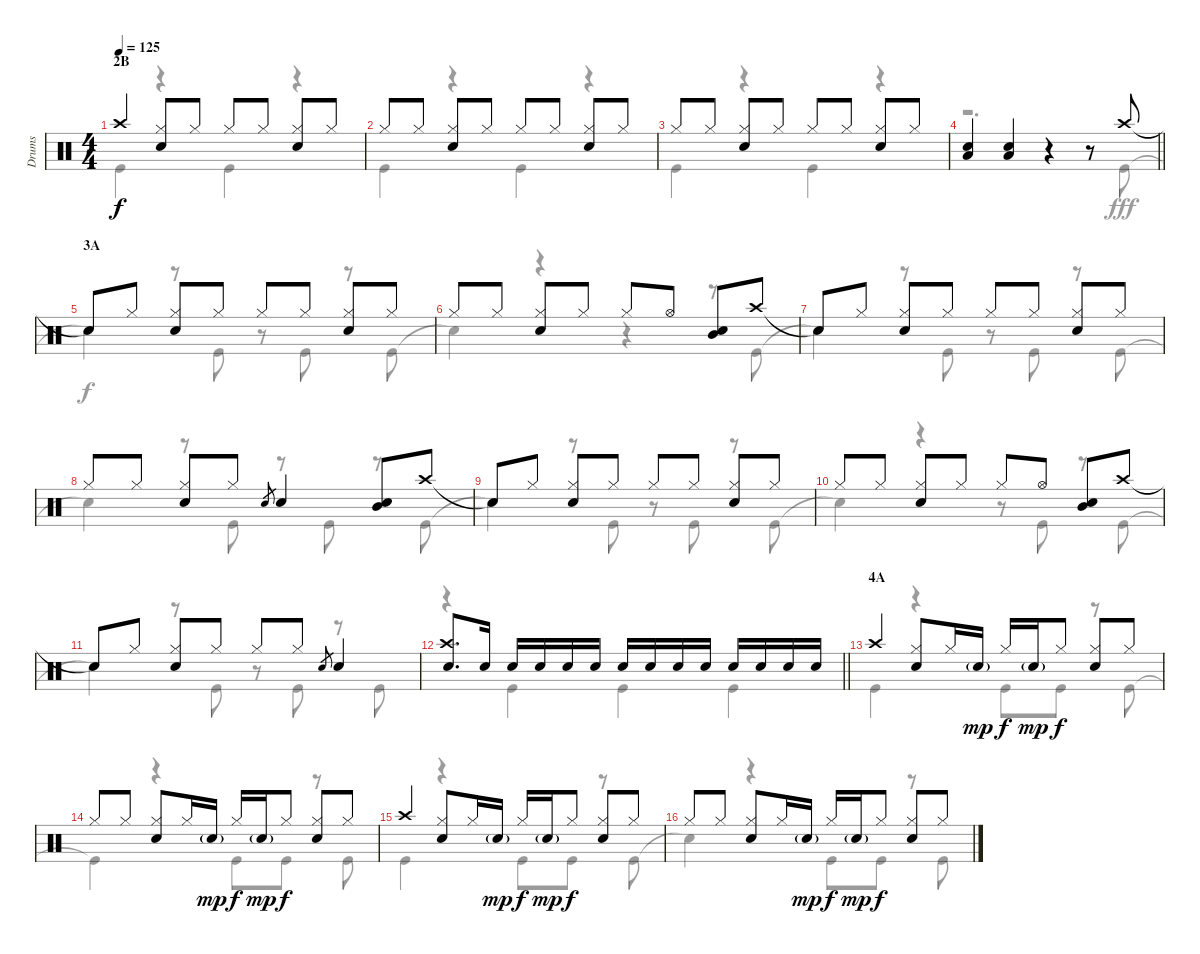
\track ("Drums" "Drums") {instrument percussion}
\staff {score}
\articulation defaults
\voice
\ts (4 4)
\section ("" "2B")
\tempo 125
\clef neutral
\ks c "Crash high (hit)".4{dy f}
("Hi-Hat (closed)" "Snare (hit) 2").8 "Hi-Hat (closed)".8 "Hi-Hat (closed)".8 "Hi-Hat (closed)".8 ("Hi-Hat (closed)" "Snare (hit) 2").8 "Hi-Hat (closed)".8 |
"Hi-Hat (closed)".8 "Hi-Hat (closed)".8 ("Hi-Hat (closed)" "Snare (hit) 2").8 "Hi-Hat (closed)".8 "Hi-Hat (closed)".8 "Hi-Hat (closed)".8 ("Hi-Hat (closed)" "Snare (hit) 2").8 "Hi-Hat (closed)".8 |
"Hi-Hat (closed)".8 "Hi-Hat (closed)".8 ("Hi-Hat (closed)" "Snare (hit) 2").8 "Hi-Hat (closed)".8 "Hi-Hat (closed)".8 "Hi-Hat (closed)".8 ("Hi-Hat (closed)" "Snare (hit) 2").8 "Hi-Hat (closed)".8 |
\barLineRight lightlight
("Low Tom (hit)" "Snare (hit) 2").4 ("Low Tom (hit)" "Snare (hit) 2").4 r.4 r.8 "Crash high (hit)".8 |
\section ("" "3A")
"Snare (hit)"{t}.8 "Hi-Hat (closed)".8 ("Hi-Hat (closed)" "Snare (hit) 2").8 "Hi-Hat (closed)".8 "Hi-Hat (closed)".8 "Hi-Hat (closed)".8 ("Hi-Hat (closed)" "Snare (hit) 2").8 "Hi-Hat (closed)".8 |
"Hi-Hat (closed)".8 "Hi-Hat (closed)".8 ("Hi-Hat (closed)" "Snare (hit) 2").8 "Hi-Hat (closed)".8 "Hi-Hat (closed)".8 "Hi-Hat (open)".8 ("Snare (hit) 2" "Mid Tom (hit)").8 "Crash high (hit)".8 |
"Snare (hit)"{t}.8 "Hi-Hat (closed)".8 ("Hi-Hat (closed)" "Snare (hit) 2").8 "Hi-Hat (closed)".8 "Hi-Hat (closed)".8 "Hi-Hat (closed)".8 ("Hi-Hat (closed)" "Snare (hit) 2").8 "Hi-Hat (closed)".8 |
"Hi-Hat (closed)".8 "Hi-Hat (closed)".8 ("Hi-Hat (closed)" "Snare (hit) 2").8 "Hi-Hat (closed)".8 "Snare (hit) 2".8{gr} "Snare (hit) 2".4 ("Snare (hit) 2" "Mid Tom (hit)").8 "Crash high (hit)".8 |
"Snare (hit)"{t}.8 "Hi-Hat (closed)".8 ("Hi-Hat (closed)" "Snare (hit) 2").8 "Hi-Hat (closed)".8 "Hi-Hat (closed)".8 "Hi-Hat (closed)".8 ("Hi-Hat (closed)" "Snare (hit) 2").8 "Hi-Hat (closed)".8 |
"Hi-Hat (closed)".8 "Hi-Hat (closed)".8 ("Hi-Hat (closed)" "Snare (hit) 2").8 "Hi-Hat (closed)".8 "Hi-Hat (closed)".8 "Hi-Hat (open)".8 ("Snare (hit) 2" "Mid Tom (hit)").8 "Crash high (hit)".8 |
"Snare (hit)"{t}.8 "Hi-Hat (closed)".8 ("Hi-Hat (closed)" "Snare (hit) 2").8 "Hi-Hat (closed)".8 "Hi-Hat (closed)".8 "Hi-Hat (closed)".8 "Snare (hit) 2".8{gr} "Snare (hit) 2".4 |
\barLineRight lightlight
("Crash high (hit)" "Snare (hit) 2").8{d} "Snare (hit) 2".16 "Snare (hit) 2".16 "Snare (hit) 2".16 "Snare (hit) 2".16 "Snare (hit) 2".16 "Snare (hit) 2".16 "Snare (hit) 2".16 "Snare (hit) 2".16 "Snare (hit) 2".16 "Snare (hit) 2".16 "Snare (hit) 2".16 "Snare (hit) 2".16 "Snare (hit) 2".16 |
\section ("" "4A")
"Crash high (hit)".4 ("Hi-Hat (closed)" "Snare (hit) 2").8 "Hi-Hat (closed)".16 "Snare (hit) 2"{g}.16{dy mp} "Hi-Hat (closed)".16{dy f} "Snare (hit) 2"{g}.16{dy mp} "Hi-Hat (closed)".8{dy f} ("Hi-Hat (closed)" "Snare (hit) 2").8 "Hi-Hat (closed)".8 |
"Hi-Hat (closed)".8 "Hi-Hat (closed)".8 ("Hi-Hat (closed)" "Snare (hit) 2").8 "Hi-Hat (closed)".16 "Snare (hit) 2"{g}.16{dy mp} "Hi-Hat (closed)".16{dy f} "Snare (hit) 2"{g}.16{dy mp} "Hi-Hat (closed)".8{dy f} ("Hi-Hat (closed)" "Snare (hit) 2").8 "Hi-Hat (closed)".8 |
"Crash high (hit)".4 ("Hi-Hat (closed)" "Snare (hit) 2").8 "Hi-Hat (closed)".16 "Snare (hit) 2"{g}.16{dy mp} "Hi-Hat (closed)".16{dy f} "Snare (hit) 2"{g}.16{dy mp} "Hi-Hat (closed)".8{dy f} ("Hi-Hat (closed)" "Snare (hit) 2").8 "Hi-Hat (closed)".8 |
"Hi-Hat (closed)".8 "Hi-Hat (closed)".8 ("Hi-Hat (closed)" "Snare (hit) 2").8 "Hi-Hat (closed)".16 "Snare (hit) 2"{g}.16{dy mp} "Hi-Hat (closed)".16{dy f} "Snare (hit) 2"{g}.16{dy mp} "Hi-Hat (closed)".8{dy f} ("Hi-Hat (closed)" "Snare (hit) 2").8 "Hi-Hat (closed)".8
\voice
\clef neutral
\ottava regular
\simile none
\ks c "Kick (hit)".4{dy f}
r.4 "Kick (hit)".4 r.4 |
"Kick (hit)".4 r.4 "Kick (hit)".4 r.4 |
"Kick (hit)".4 r.4 "Kick (hit)".4 r.4 |
\barLineRight lightlight
r.2{d} r.8 "Kick (hit)".8{dy fff} |
"Snare (hit)"{t}.4{dy f} r.8 "Kick (hit)".8 r.8 "Kick (hit)".8 r.8 "Kick (hit)".8 |
"Snare (hit)"{t}.4 r.4 r.4 r.8 "Kick (hit)".8 |
"Snare (hit)"{t}.4 r.8 "Kick (hit)".8 r.8 "Kick (hit)".8 r.8 "Kick (hit)".8 |
"Snare (hit)"{t}.4 r.8 "Kick (hit)".8 r.8 "Kick (hit)".8 r.8 "Kick (hit)".8 |
"Snare (hit)"{t}.4 r.8 "Kick (hit)".8 r.8 "Kick (hit)".8 r.8 "Kick (hit)".8 |
"Snare (hit)"{t}.4 r.4 r.8 "Kick (hit)".8 r.8 "Kick (hit)".8 |
"Snare (hit)"{t}.4 r.8 "Kick (hit)".8 r.8 "Kick (hit)".8 r.8 "Kick (hit)".8 |
\barLineRight lightlight
r.4 "Kick (hit)".4 "Kick (hit)".4 "Kick (hit)".4 |
"Kick (hit)".4 r.4 "Kick (hit)".8 "Kick (hit)".8 r.8 "Kick (hit)".8 |
"Kick (hit)"{t}.4 r.4 "Kick (hit)".8 "Kick (hit)".8 r.8 "Kick (hit)".8 |
"Kick (hit)".4 r.4 "Kick (hit)".8 "Kick (hit)".8 r.8 "Kick (hit)".8 |
"Snare (hit)"{t}.4 r.4 "Kick (hit)".8 "Kick (hit)".8 r.8 "Kick (hit)".8
